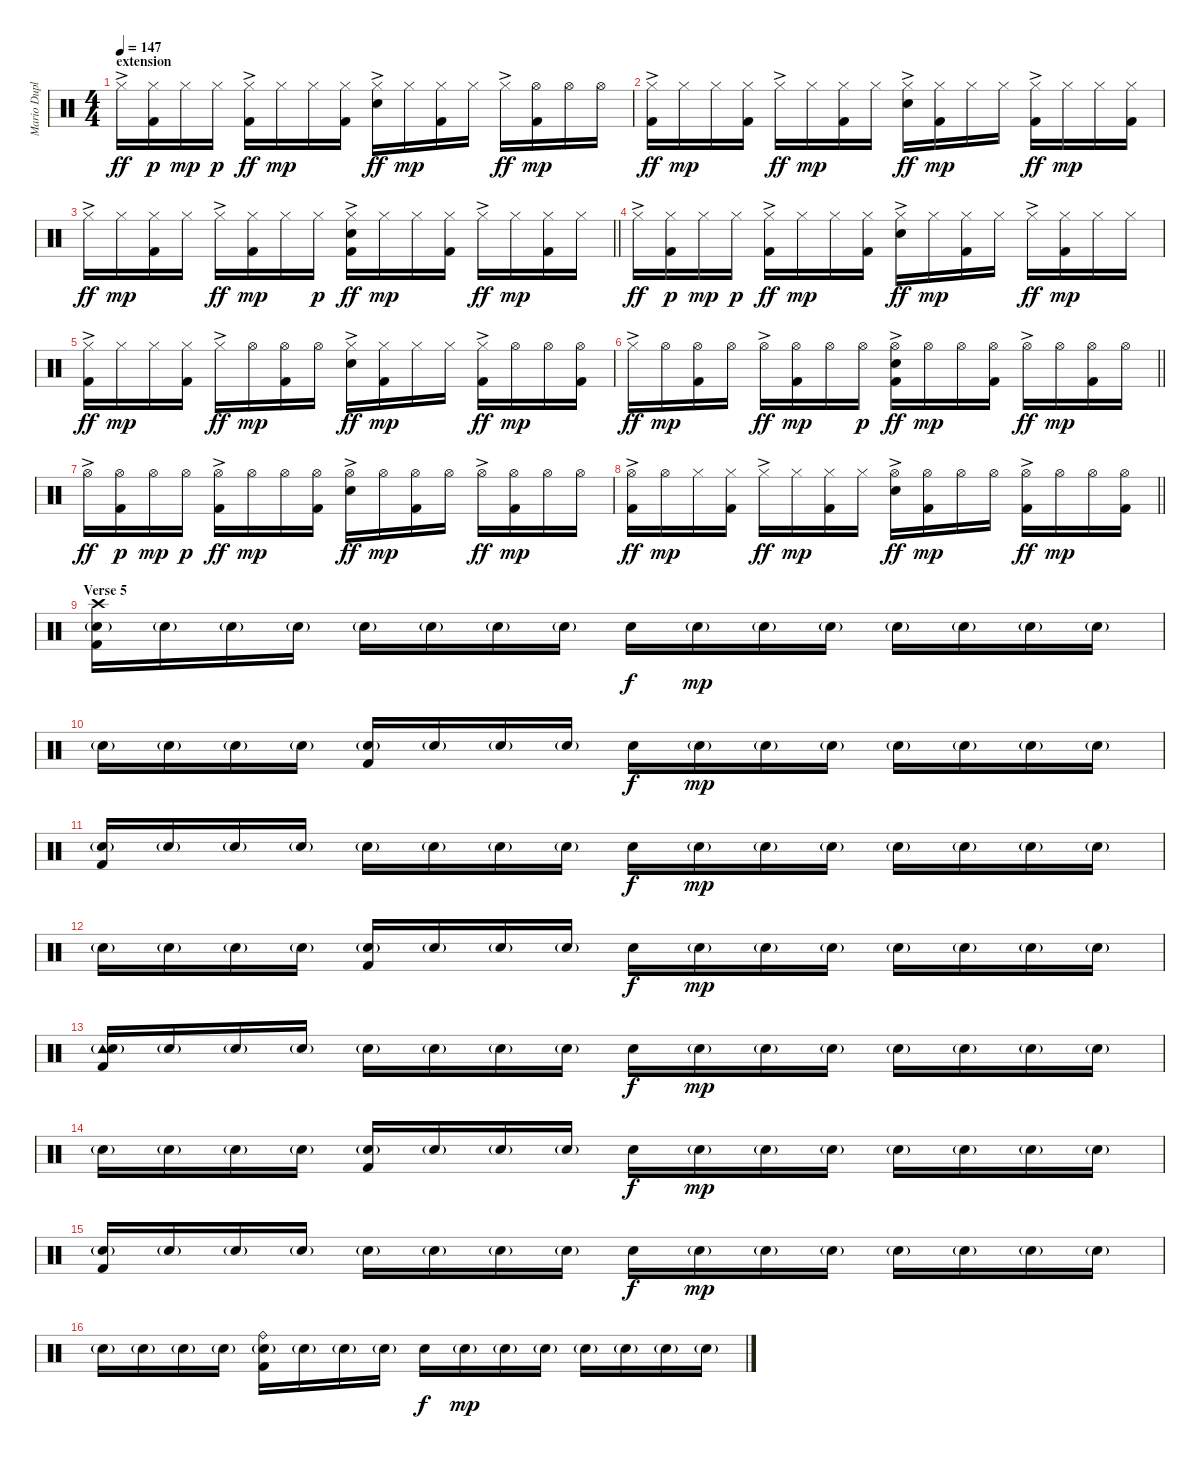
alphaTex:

\track ("Mario Duplantier - DRUMS" "Mario Dupl") {instrument percussion}
\staff {score}
\articulation defaults
\ts (4 4)
\section ("" "extension")
\tempo 147
\clef neutral
\ks c "Hi-Hat (closed)"{ac}.16{dy ff}
("Hi-Hat (closed)" "Kick (hit) 2").16{dy p} "Hi-Hat (closed)".16{dy mp} "Hi-Hat (closed)".16{dy p} ("Hi-Hat (closed)"{ac} "Kick (hit) 2").16{dy ff} "Hi-Hat (closed)".16{dy mp} "Hi-Hat (closed)".16 ("Hi-Hat (closed)" "Kick (hit) 2").16 ("Hi-Hat (closed)"{ac} "Electric Snare (hit)").16{dy ff} "Hi-Hat (closed)".16{dy mp} ("Hi-Hat (closed)" "Kick (hit) 2").16 "Hi-Hat (closed)".16 "Hi-Hat (closed)"{ac}.16{dy ff} ("Hi-Hat (open)" "Kick (hit) 2").16{dy mp} "Hi-Hat (open)".16 "Hi-Hat (open)".16 |
("Hi-Hat (closed)"{ac} "Kick (hit) 2").16{dy ff} "Hi-Hat (closed)".16{dy mp} "Hi-Hat (closed)".16 ("Hi-Hat (closed)" "Kick (hit) 2").16 "Hi-Hat (closed)"{ac}.16{dy ff} "Hi-Hat (closed)".16{dy mp} ("Hi-Hat (closed)" "Kick (hit) 2").16 "Hi-Hat (closed)".16 ("Hi-Hat (closed)"{ac} "Electric Snare (hit)").16{dy ff} ("Hi-Hat (closed)" "Kick (hit) 2").16{dy mp} "Hi-Hat (closed)".16 "Hi-Hat (closed)".16 ("Hi-Hat (closed)"{ac} "Kick (hit) 2").16{dy ff} "Hi-Hat (closed)".16{dy mp} "Hi-Hat (closed)".16 ("Hi-Hat (closed)" "Kick (hit) 2").16 |
\barLineRight lightlight "Hi-Hat (closed)"{ac}.16{dy ff} "Hi-Hat (closed)".16{dy mp}
("Hi-Hat (closed)" "Kick (hit) 2").16 "Hi-Hat (closed)".16 "Hi-Hat (closed)"{ac}.16{dy ff} ("Hi-Hat (closed)" "Kick (hit) 2").16{dy mp} "Hi-Hat (closed)".16 "Hi-Hat (closed)".16{dy p} ("Hi-Hat (closed)"{ac} "Electric Snare (hit)" "Kick (hit) 2").16{dy ff} "Hi-Hat (closed)".16{dy mp} "Hi-Hat (closed)".16 ("Hi-Hat (closed)" "Kick (hit) 2").16 "Hi-Hat (closed)"{ac}.16{dy ff} "Hi-Hat (closed)".16{dy mp} ("Hi-Hat (closed)" "Kick (hit) 2").16 "Hi-Hat (closed)".16 |
"Hi-Hat (closed)"{ac}.16{dy ff} ("Hi-Hat (closed)" "Kick (hit) 2").16{dy p} "Hi-Hat (closed)".16{dy mp} "Hi-Hat (closed)".16{dy p} ("Hi-Hat (closed)"{ac} "Kick (hit) 2").16{dy ff} "Hi-Hat (closed)".16{dy mp} "Hi-Hat (closed)".16 ("Hi-Hat (closed)" "Kick (hit) 2").16 ("Hi-Hat (closed)"{ac} "Electric Snare (hit)").16{dy ff} "Hi-Hat (closed)".16{dy mp} ("Hi-Hat (closed)" "Kick (hit) 2").16 "Hi-Hat (closed)".16 "Hi-Hat (closed)"{ac}.16{dy ff} ("Hi-Hat (closed)" "Kick (hit) 2").16{dy mp} "Hi-Hat (closed)".16 "Hi-Hat (closed)".16 |
("Hi-Hat (closed)"{ac} "Kick (hit) 2").16{dy ff} "Hi-Hat (closed)".16{dy mp} "Hi-Hat (closed)".16 ("Hi-Hat (closed)" "Kick (hit) 2").16 "Hi-Hat (closed)"{ac}.16{dy ff} "Hi-Hat (open)".16{dy mp} ("Hi-Hat (open)" "Kick (hit) 2").16 "Hi-Hat (open)".16 ("Hi-Hat (closed)"{ac} "Electric Snare (hit)").16{dy ff} ("Hi-Hat (closed)" "Kick (hit) 2").16{dy mp} "Hi-Hat (closed)".16 "Hi-Hat (closed)".16 ("Hi-Hat (closed)"{ac} "Kick (hit) 2").16{dy ff} "Hi-Hat (open)".16{dy mp} "Hi-Hat (open)".16 ("Hi-Hat (open)" "Kick (hit) 2").16 |
\barLineRight lightlight "Hi-Hat (closed)"{ac}.16{dy ff} "Hi-Hat (open)".16{dy mp}
("Hi-Hat (open)" "Kick (hit) 2").16 "Hi-Hat (open)".16 "Hi-Hat (open)"{ac}.16{dy ff} ("Hi-Hat (open)" "Kick (hit) 2").16{dy mp} "Hi-Hat (open)".16 "Hi-Hat (open)".16{dy p} ("Hi-Hat (open)"{ac} "Electric Snare (hit)" "Kick (hit) 2").16{dy ff} "Hi-Hat (open)".16{dy mp} "Hi-Hat (open)".16 ("Hi-Hat (open)" "Kick (hit) 2").16 "Hi-Hat (open)"{ac}.16{dy ff} "Hi-Hat (open)".16{dy mp} ("Hi-Hat (open)" "Kick (hit) 2").16 "Hi-Hat (open)".16 |
"Hi-Hat (open)"{ac}.16{dy ff} ("Hi-Hat (open)" "Kick (hit) 2").16{dy p} "Hi-Hat (open)".16{dy mp} "Hi-Hat (open)".16{dy p} ("Hi-Hat (open)"{ac} "Kick (hit) 2").16{dy ff} "Hi-Hat (open)".16{dy mp} "Hi-Hat (open)".16 ("Hi-Hat (open)" "Kick (hit) 2").16 ("Hi-Hat (open)"{ac} "Electric Snare (hit)").16{dy ff} "Hi-Hat (open)".16{dy mp} ("Hi-Hat (open)" "Kick (hit) 2").16 "Hi-Hat (open)".16 "Hi-Hat (open)"{ac}.16{dy ff} ("Hi-Hat (open)" "Kick (hit) 2").16{dy mp} "Hi-Hat (open)".16 "Hi-Hat (open)".16 |
\barLineRight lightlight
("Hi-Hat (open)"{ac} "Kick (hit) 2").16{dy ff} "Hi-Hat (open)".16{dy mp} "Hi-Hat (closed)".16 ("Hi-Hat (closed)" "Kick (hit) 2").16 "Hi-Hat (closed)"{ac}.16{dy ff} "Hi-Hat (closed)".16{dy mp} ("Hi-Hat (closed)" "Kick (hit) 2").16 "Hi-Hat (closed)".16 ("Hi-Hat (open)"{ac} "Electric Snare (hit)").16{dy ff} ("Hi-Hat (open)" "Kick (hit) 2").16{dy mp} "Hi-Hat (open)".16 "Hi-Hat (open)".16 ("Hi-Hat (open)"{ac} "Kick (hit) 2").16{dy ff} "Hi-Hat (open)".16{dy mp} "Hi-Hat (open)".16 ("Hi-Hat (open)" "Kick (hit) 2").16 |
\section ("" "Verse 5")
("Crash high (hit)" "Electric Snare (hit)"{g} "Kick (hit) 2").16 "Electric Snare (hit)"{g}.16 "Electric Snare (hit)"{g}.16 "Electric Snare (hit)"{g}.16 "Electric Snare (hit)"{g}.16 "Electric Snare (hit)"{g}.16 "Electric Snare (hit)"{g}.16 "Electric Snare (hit)"{g}.16 "Electric Snare (hit)".16{dy f} "Electric Snare (hit)"{g}.16{dy mp} "Electric Snare (hit)"{g}.16 "Electric Snare (hit)"{g}.16 "Electric Snare (hit)"{g}.16 "Electric Snare (hit)"{g}.16 "Electric Snare (hit)"{g}.16 "Electric Snare (hit)"{g}.16 |
"Electric Snare (hit)"{g}.16 "Electric Snare (hit)"{g}.16 "Electric Snare (hit)"{g}.16 "Electric Snare (hit)"{g}.16 ("Electric Snare (hit)"{g} "Kick (hit) 2").16 "Electric Snare (hit)"{g}.16 "Electric Snare (hit)"{g}.16 "Electric Snare (hit)"{g}.16 "Electric Snare (hit)".16{dy f} "Electric Snare (hit)"{g}.16{dy mp} "Electric Snare (hit)"{g}.16 "Electric Snare (hit)"{g}.16 "Electric Snare (hit)"{g}.16 "Electric Snare (hit)"{g}.16 "Electric Snare (hit)"{g}.16 "Electric Snare (hit)"{g}.16 |
("Electric Snare (hit)"{g} "Kick (hit) 2").16 "Electric Snare (hit)"{g}.16 "Electric Snare (hit)"{g}.16 "Electric Snare (hit)"{g}.16 "Electric Snare (hit)"{g}.16 "Electric Snare (hit)"{g}.16 "Electric Snare (hit)"{g}.16 "Electric Snare (hit)"{g}.16 "Electric Snare (hit)".16{dy f} "Electric Snare (hit)"{g}.16{dy mp} "Electric Snare (hit)"{g}.16 "Electric Snare (hit)"{g}.16 "Electric Snare (hit)"{g}.16 "Electric Snare (hit)"{g}.16 "Electric Snare (hit)"{g}.16 "Electric Snare (hit)"{g}.16 |
"Electric Snare (hit)"{g}.16 "Electric Snare (hit)"{g}.16 "Electric Snare (hit)"{g}.16 "Electric Snare (hit)"{g}.16 ("Electric Snare (hit)"{g} "Kick (hit) 2").16 "Electric Snare (hit)"{g}.16 "Electric Snare (hit)"{g}.16 "Electric Snare (hit)"{g}.16 "Electric Snare (hit)".16{dy f} "Electric Snare (hit)"{g}.16{dy mp} "Electric Snare (hit)"{g}.16 "Electric Snare (hit)"{g}.16 "Electric Snare (hit)"{g}.16 "Electric Snare (hit)"{g}.16 "Electric Snare (hit)"{g}.16 "Electric Snare (hit)"{g}.16 |
("Tambourine (hit)" "Electric Snare (hit)"{g} "Kick (hit) 2").16 "Electric Snare (hit)"{g}.16 "Electric Snare (hit)"{g}.16 "Electric Snare (hit)"{g}.16 "Electric Snare (hit)"{g}.16 "Electric Snare (hit)"{g}.16 "Electric Snare (hit)"{g}.16 "Electric Snare (hit)"{g}.16 "Electric Snare (hit)".16{dy f} "Electric Snare (hit)"{g}.16{dy mp} "Electric Snare (hit)"{g}.16 "Electric Snare (hit)"{g}.16 "Electric Snare (hit)"{g}.16 "Electric Snare (hit)"{g}.16 "Electric Snare (hit)"{g}.16 "Electric Snare (hit)"{g}.16 |
"Electric Snare (hit)"{g}.16 "Electric Snare (hit)"{g}.16 "Electric Snare (hit)"{g}.16 "Electric Snare (hit)"{g}.16 ("Electric Snare (hit)"{g} "Kick (hit) 2").16 "Electric Snare (hit)"{g}.16 "Electric Snare (hit)"{g}.16 "Electric Snare (hit)"{g}.16 "Electric Snare (hit)".16{dy f} "Electric Snare (hit)"{g}.16{dy mp} "Electric Snare (hit)"{g}.16 "Electric Snare (hit)"{g}.16 "Electric Snare (hit)"{g}.16 "Electric Snare (hit)"{g}.16 "Electric Snare (hit)"{g}.16 "Electric Snare (hit)"{g}.16 |
("Electric Snare (hit)"{g} "Kick (hit) 2").16 "Electric Snare (hit)"{g}.16 "Electric Snare (hit)"{g}.16 "Electric Snare (hit)"{g}.16 "Electric Snare (hit)"{g}.16 "Electric Snare (hit)"{g}.16 "Electric Snare (hit)"{g}.16 "Electric Snare (hit)"{g}.16 "Electric Snare (hit)".16{dy f} "Electric Snare (hit)"{g}.16{dy mp} "Electric Snare (hit)"{g}.16 "Electric Snare (hit)"{g}.16 "Electric Snare (hit)"{g}.16 "Electric Snare (hit)"{g}.16 "Electric Snare (hit)"{g}.16 "Electric Snare (hit)"{g}.16 |
"Electric Snare (hit)"{g}.16 "Electric Snare (hit)"{g}.16 "Electric Snare (hit)"{g}.16 "Electric Snare (hit)"{g}.16 ("Ride (bell)" "Electric Snare (hit)"{g} "Kick (hit) 2").16 "Electric Snare (hit)"{g}.16 "Electric Snare (hit)"{g}.16 "Electric Snare (hit)"{g}.16 "Electric Snare (hit)".16{dy f} "Electric Snare (hit)"{g}.16{dy mp} "Electric Snare (hit)"{g}.16 "Electric Snare (hit)"{g}.16 "Electric Snare (hit)"{g}.16 "Electric Snare (hit)"{g}.16 "Electric Snare (hit)"{g}.16 "Electric Snare (hit)"{g}.16
